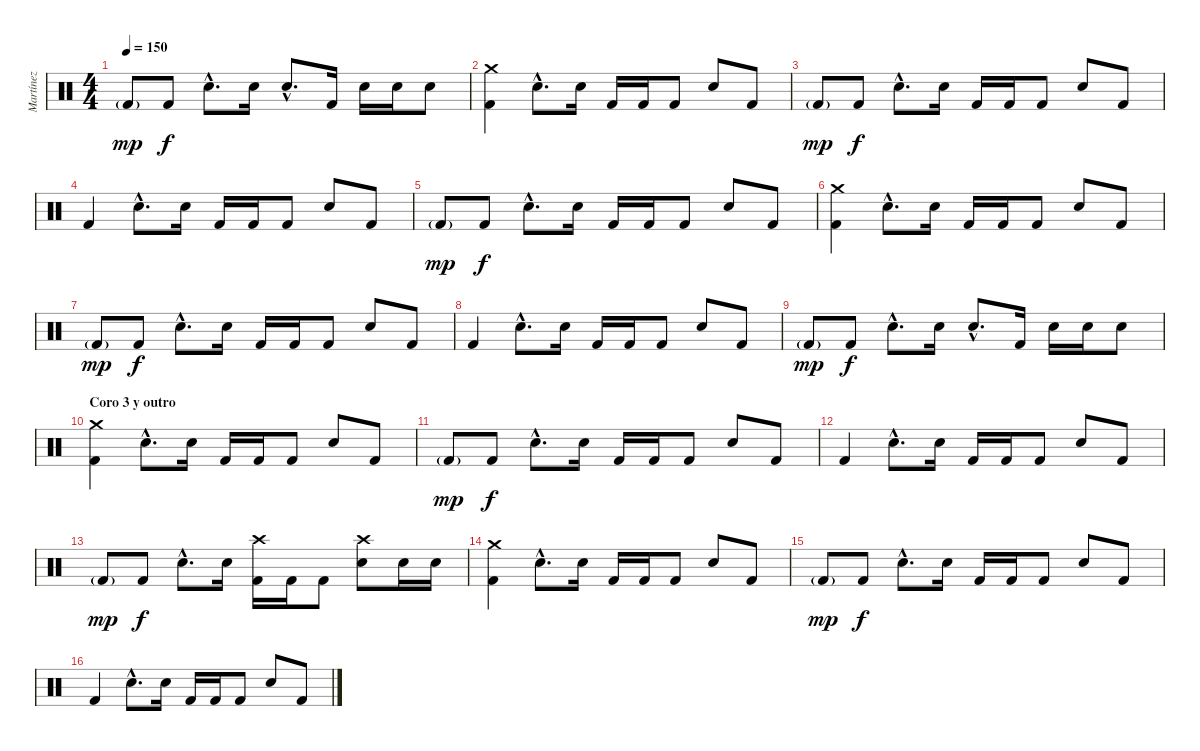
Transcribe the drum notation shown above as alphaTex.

\track ("Martínez" "Martínez") {instrument percussion}
\staff {score}
\articulation defaults
\ts (4 4)
\tempo 150
\clef neutral
\ks c "Kick (hit) 2"{g}.8{dy mp} "Kick (hit) 2".8{dy f} "Electric Snare (hit)"{hac}.8{d} "Electric Snare (hit)".16 "Electric Snare (hit)"{hac}.8{d} "Kick (hit) 2".16 "Electric Snare (hit)".16 "Electric Snare (hit)".16 "Electric Snare (hit)".8
|
("Crash medium (hit)" "Kick (hit) 2").4 "Electric Snare (hit)"{hac}.8{d} "Electric Snare (hit)".16 "Kick (hit) 2".16 "Kick (hit) 2".16 "Kick (hit) 2".8 "Electric Snare (hit)".8 "Kick (hit) 2".8 |
"Kick (hit) 2"{g}.8{dy mp} "Kick (hit) 2".8{dy f} "Electric Snare (hit)"{hac}.8{d} "Electric Snare (hit)".16 "Kick (hit) 2".16 "Kick (hit) 2".16 "Kick (hit) 2".8 "Electric Snare (hit)".8 "Kick (hit) 2".8 |
"Kick (hit) 2".4 "Electric Snare (hit)"{hac}.8{d} "Electric Snare (hit)".16 "Kick (hit) 2".16 "Kick (hit) 2".16 "Kick (hit) 2".8 "Electric Snare (hit)".8 "Kick (hit) 2".8 |
"Kick (hit) 2"{g}.8{dy mp} "Kick (hit) 2".8{dy f} "Electric Snare (hit)"{hac}.8{d} "Electric Snare (hit)".16 "Kick (hit) 2".16 "Kick (hit) 2".16 "Kick (hit) 2".8 "Electric Snare (hit)".8 "Kick (hit) 2".8 |
("Crash medium (hit)" "Kick (hit) 2").4 "Electric Snare (hit)"{hac}.8{d} "Electric Snare (hit)".16 "Kick (hit) 2".16 "Kick (hit) 2".16 "Kick (hit) 2".8 "Electric Snare (hit)".8 "Kick (hit) 2".8 |
"Kick (hit) 2"{g}.8{dy mp} "Kick (hit) 2".8{dy f} "Electric Snare (hit)"{hac}.8{d} "Electric Snare (hit)".16 "Kick (hit) 2".16 "Kick (hit) 2".16 "Kick (hit) 2".8 "Electric Snare (hit)".8 "Kick (hit) 2".8 |
"Kick (hit) 2".4 "Electric Snare (hit)"{hac}.8{d} "Electric Snare (hit)".16 "Kick (hit) 2".16 "Kick (hit) 2".16 "Kick (hit) 2".8 "Electric Snare (hit)".8 "Kick (hit) 2".8 |
"Kick (hit) 2"{g}.8{dy mp} "Kick (hit) 2".8{dy f} "Electric Snare (hit)"{hac}.8{d} "Electric Snare (hit)".16 "Electric Snare (hit)"{hac}.8{d} "Kick (hit) 2".16 "Electric Snare (hit)".16 "Electric Snare (hit)".16 "Electric Snare (hit)".8 |
\section ("" "Coro 3 y outro")
("Crash medium (hit)" "Kick (hit) 2").4 "Electric Snare (hit)"{hac}.8{d} "Electric Snare (hit)".16 "Kick (hit) 2".16 "Kick (hit) 2".16 "Kick (hit) 2".8 "Electric Snare (hit)".8 "Kick (hit) 2".8 |
"Kick (hit) 2"{g}.8{dy mp} "Kick (hit) 2".8{dy f} "Electric Snare (hit)"{hac}.8{d} "Electric Snare (hit)".16 "Kick (hit) 2".16 "Kick (hit) 2".16 "Kick (hit) 2".8 "Electric Snare (hit)".8 "Kick (hit) 2".8 |
"Kick (hit) 2".4 "Electric Snare (hit)"{hac}.8{d} "Electric Snare (hit)".16 "Kick (hit) 2".16 "Kick (hit) 2".16 "Kick (hit) 2".8 "Electric Snare (hit)".8 "Kick (hit) 2".8 |
"Kick (hit) 2"{g}.8{dy mp} "Kick (hit) 2".8{dy f} "Electric Snare (hit)"{hac}.8{d} "Electric Snare (hit)".16 ("Crash high (hit)" "Kick (hit) 2").16 "Kick (hit) 2".16 "Kick (hit) 2".8 ("Crash high (hit)" "Electric Snare (hit)").8 "Electric Snare (hit)".16 "Electric Snare (hit)".16 |
("Crash medium (hit)" "Kick (hit) 2").4 "Electric Snare (hit)"{hac}.8{d} "Electric Snare (hit)".16 "Kick (hit) 2".16 "Kick (hit) 2".16 "Kick (hit) 2".8 "Electric Snare (hit)".8 "Kick (hit) 2".8 |
"Kick (hit) 2"{g}.8{dy mp} "Kick (hit) 2".8{dy f} "Electric Snare (hit)"{hac}.8{d} "Electric Snare (hit)".16 "Kick (hit) 2".16 "Kick (hit) 2".16 "Kick (hit) 2".8 "Electric Snare (hit)".8 "Kick (hit) 2".8 |
"Kick (hit) 2".4 "Electric Snare (hit)"{hac}.8{d} "Electric Snare (hit)".16 "Kick (hit) 2".16 "Kick (hit) 2".16 "Kick (hit) 2".8 "Electric Snare (hit)".8 "Kick (hit) 2".8
